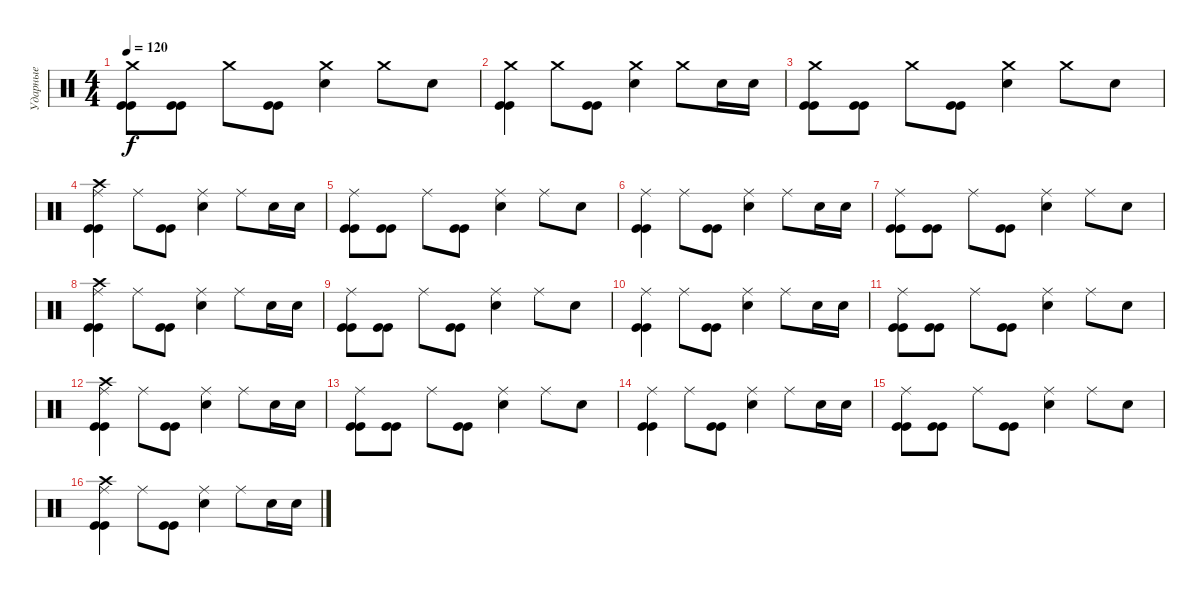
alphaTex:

\track ("Ударные" "Ударные") {instrument percussion}
\staff {score}
\articulation defaults
\ts (4 4)
\tempo 120
\clef neutral
\ks c
("Crash medium (hit)" "Kick (hit)" "Kick (hit)").8{dy f} ("Kick (hit)" "Kick (hit)").8 "Crash medium (hit)".8 ("Kick (hit)" "Kick (hit)").8 ("Crash medium (hit)" "Electric Snare (hit)").4 "Crash medium (hit)".8 "Electric Snare (hit)".8 |
("Crash medium (hit)" "Kick (hit)" "Kick (hit)").4 "Crash medium (hit)".8 ("Kick (hit)" "Kick (hit)").8 ("Crash medium (hit)" "Electric Snare (hit)").4 "Crash medium (hit)".8 "Electric Snare (hit)".16 "Electric Snare (hit)".16 |
("Crash medium (hit)" "Kick (hit)" "Kick (hit)").8 ("Kick (hit)" "Kick (hit)").8 "Crash medium (hit)".8 ("Kick (hit)" "Kick (hit)").8 ("Crash medium (hit)" "Electric Snare (hit)").4 "Crash medium (hit)".8 "Electric Snare (hit)".8 |
("Crash high (hit)" "Ride (middle)" "Kick (hit)" "Kick (hit)").4 "Ride (middle)".8 ("Kick (hit)" "Kick (hit)").8 ("Ride (middle)" "Electric Snare (hit)").4 "Ride (middle)".8 "Electric Snare (hit)".16 "Electric Snare (hit)".16 |
("Ride (middle)" "Kick (hit)" "Kick (hit)").8 ("Kick (hit)" "Kick (hit)").8 "Ride (middle)".8 ("Kick (hit)" "Kick (hit)").8 ("Ride (middle)" "Electric Snare (hit)").4 "Ride (middle)".8 "Electric Snare (hit)".8 |
("Ride (middle)" "Kick (hit)" "Kick (hit)").4 "Ride (middle)".8 ("Kick (hit)" "Kick (hit)").8 ("Ride (middle)" "Electric Snare (hit)").4 "Ride (middle)".8 "Electric Snare (hit)".16 "Electric Snare (hit)".16 |
("Ride (middle)" "Kick (hit)" "Kick (hit)").8 ("Kick (hit)" "Kick (hit)").8 "Ride (middle)".8 ("Kick (hit)" "Kick (hit)").8 ("Ride (middle)" "Electric Snare (hit)").4 "Ride (middle)".8 "Electric Snare (hit)".8 |
("Crash high (hit)" "Ride (middle)" "Kick (hit)" "Kick (hit)").4 "Ride (middle)".8 ("Kick (hit)" "Kick (hit)").8 ("Ride (middle)" "Electric Snare (hit)").4 "Ride (middle)".8 "Electric Snare (hit)".16 "Electric Snare (hit)".16 |
("Ride (middle)" "Kick (hit)" "Kick (hit)").8 ("Kick (hit)" "Kick (hit)").8 "Ride (middle)".8 ("Kick (hit)" "Kick (hit)").8 ("Ride (middle)" "Electric Snare (hit)").4 "Ride (middle)".8 "Electric Snare (hit)".8 |
("Ride (middle)" "Kick (hit)" "Kick (hit)").4 "Ride (middle)".8 ("Kick (hit)" "Kick (hit)").8 ("Ride (middle)" "Electric Snare (hit)").4 "Ride (middle)".8 "Electric Snare (hit)".16 "Electric Snare (hit)".16 |
("Ride (middle)" "Kick (hit)" "Kick (hit)").8 ("Kick (hit)" "Kick (hit)").8 "Ride (middle)".8 ("Kick (hit)" "Kick (hit)").8 ("Ride (middle)" "Electric Snare (hit)").4 "Ride (middle)".8 "Electric Snare (hit)".8 |
("Crash high (hit)" "Ride (middle)" "Kick (hit)" "Kick (hit)").4 "Ride (middle)".8 ("Kick (hit)" "Kick (hit)").8 ("Ride (middle)" "Electric Snare (hit)").4 "Ride (middle)".8 "Electric Snare (hit)".16 "Electric Snare (hit)".16 |
("Ride (middle)" "Kick (hit)" "Kick (hit)").8 ("Kick (hit)" "Kick (hit)").8 "Ride (middle)".8 ("Kick (hit)" "Kick (hit)").8 ("Ride (middle)" "Electric Snare (hit)").4 "Ride (middle)".8 "Electric Snare (hit)".8 |
("Ride (middle)" "Kick (hit)" "Kick (hit)").4 "Ride (middle)".8 ("Kick (hit)" "Kick (hit)").8 ("Ride (middle)" "Electric Snare (hit)").4 "Ride (middle)".8 "Electric Snare (hit)".16 "Electric Snare (hit)".16 |
("Ride (middle)" "Kick (hit)" "Kick (hit)").8 ("Kick (hit)" "Kick (hit)").8 "Ride (middle)".8 ("Kick (hit)" "Kick (hit)").8 ("Ride (middle)" "Electric Snare (hit)").4 "Ride (middle)".8 "Electric Snare (hit)".8 |
("Crash high (hit)" "Ride (middle)" "Kick (hit)" "Kick (hit)").4 "Ride (middle)".8 ("Kick (hit)" "Kick (hit)").8 ("Ride (middle)" "Electric Snare (hit)").4 "Ride (middle)".8 "Electric Snare (hit)".16 "Electric Snare (hit)".16
